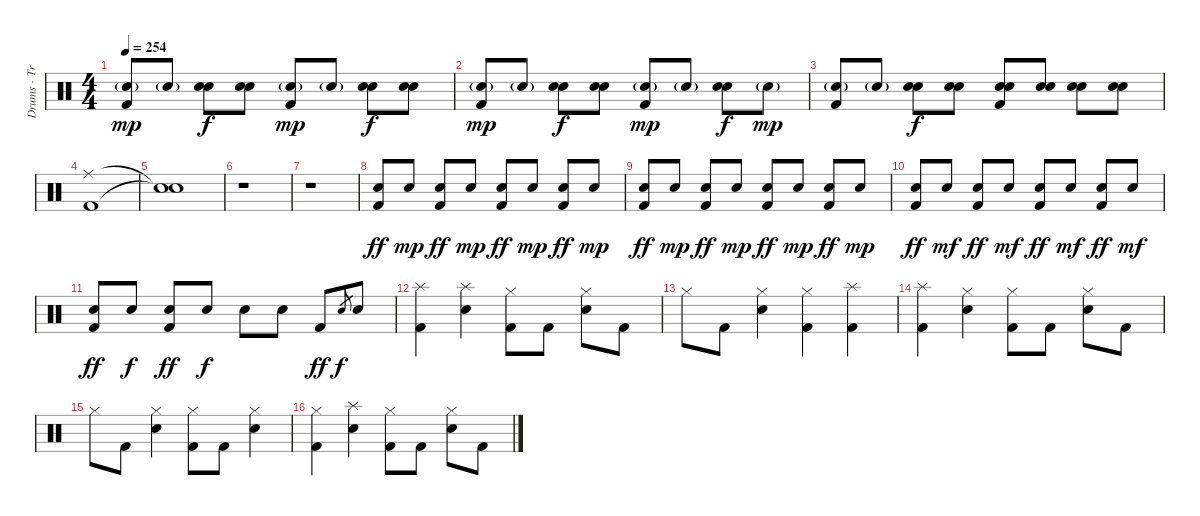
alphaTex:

\track ("Drums - Travis Barker" "Drums - Tr") {instrument percussion}
\staff {score}
\articulation defaults
\ts (4 4)
\tempo 254
\clef neutral
\ks c
("Electric Snare (hit)"{g} "Kick (hit) 2").8{dy mp} "Electric Snare (hit)"{g}.8 ("Electric Snare (hit)" "Electric Snare (hit)").8{dy f} ("Electric Snare (hit)" "Electric Snare (hit)").8 ("Electric Snare (hit)"{g} "Kick (hit) 2").8{dy mp} "Electric Snare (hit)"{g}.8 ("Electric Snare (hit)" "Electric Snare (hit)").8{dy f} ("Electric Snare (hit)" "Electric Snare (hit)").8 |
("Electric Snare (hit)"{g} "Kick (hit) 2").8{dy mp} "Electric Snare (hit)"{g}.8 ("Electric Snare (hit)" "Electric Snare (hit)").8{dy f} ("Electric Snare (hit)" "Electric Snare (hit)").8 ("Electric Snare (hit)"{g} "Kick (hit) 2").8{dy mp} "Electric Snare (hit)"{g}.8 ("Electric Snare (hit)" "Electric Snare (hit)").8{dy f} "Electric Snare (hit)"{g}.8{dy mp} |
("Electric Snare (hit)"{g} "Kick (hit) 2").8 "Electric Snare (hit)"{g}.8 ("Electric Snare (hit)" "Electric Snare (hit)").8{dy f} ("Electric Snare (hit)" "Electric Snare (hit)").8 ("Electric Snare (hit)" "Electric Snare (hit)" "Kick (hit) 2").8 ("Electric Snare (hit)" "Electric Snare (hit)").8 ("Electric Snare (hit)" "Electric Snare (hit)").8 ("Electric Snare (hit)" "Electric Snare (hit)").8 |
("Ride (middle)" "Kick (hit) 2").1 |
("Snare (hit)"{t} "Snare (hit)"{t}).1 |
r.1 |
r.1 |
("Electric Snare (hit)" "Kick (hit) 2").8{dy ff} "Electric Snare (hit)".8{dy mp} ("Electric Snare (hit)" "Kick (hit) 2").8{dy ff} "Electric Snare (hit)".8{dy mp} ("Electric Snare (hit)" "Kick (hit) 2").8{dy ff} "Electric Snare (hit)".8{dy mp} ("Electric Snare (hit)" "Kick (hit) 2").8{dy ff} "Electric Snare (hit)".8{dy mp} |
("Electric Snare (hit)" "Kick (hit) 2").8{dy ff} "Electric Snare (hit)".8{dy mp} ("Electric Snare (hit)" "Kick (hit) 2").8{dy ff} "Electric Snare (hit)".8{dy mp} ("Electric Snare (hit)" "Kick (hit) 2").8{dy ff} "Electric Snare (hit)".8{dy mp} ("Electric Snare (hit)" "Kick (hit) 2").8{dy ff} "Electric Snare (hit)".8{dy mp} |
("Electric Snare (hit)" "Kick (hit) 2").8{dy ff} "Electric Snare (hit)".8{dy mf} ("Electric Snare (hit)" "Kick (hit) 2").8{dy ff} "Electric Snare (hit)".8{dy mf} ("Electric Snare (hit)" "Kick (hit) 2").8{dy ff} "Electric Snare (hit)".8{dy mf} ("Electric Snare (hit)" "Kick (hit) 2").8{dy ff} "Electric Snare (hit)".8{dy mf} |
("Electric Snare (hit)" "Kick (hit) 2").8{dy ff} "Electric Snare (hit)".8{dy f} ("Electric Snare (hit)" "Kick (hit) 2").8{dy ff} "Electric Snare (hit)".8{dy f} "Electric Snare (hit)".8 "Electric Snare (hit)".8 "Kick (hit) 2".8{dy ff} "Electric Snare (hit)".8{gr dy f} "Electric Snare (hit)".8 |
("Splash (hit)" "Kick (hit) 2").4 ("Splash (hit)" "Electric Snare (hit)").4 ("Hi-Hat (closed)" "Kick (hit) 2").8 "Kick (hit) 2".8 ("Hi-Hat (closed)" "Electric Snare (hit)").8 "Kick (hit) 2".8 |
"Hi-Hat (closed)".8 "Kick (hit) 2".8 ("Hi-Hat (closed)" "Electric Snare (hit)").4 ("Hi-Hat (closed)" "Kick (hit) 2").4 ("Splash (hit)" "Kick (hit) 2").4 |
("Splash (hit)" "Kick (hit) 2").4 ("Hi-Hat (closed)" "Electric Snare (hit)").4 ("Hi-Hat (closed)" "Kick (hit) 2").8 "Kick (hit) 2".8 ("Hi-Hat (closed)" "Electric Snare (hit)").8 "Kick (hit) 2".8 |
"Hi-Hat (closed)".8 "Kick (hit) 2".8 ("Hi-Hat (closed)" "Electric Snare (hit)").4 ("Hi-Hat (closed)" "Kick (hit) 2").8 "Kick (hit) 2".8 ("Hi-Hat (closed)" "Electric Snare (hit)").4 |
("Hi-Hat (closed)" "Kick (hit) 2").4 ("Splash (hit)" "Electric Snare (hit)").4 ("Hi-Hat (closed)" "Kick (hit) 2").8 "Kick (hit) 2".8 ("Hi-Hat (closed)" "Electric Snare (hit)").8 "Kick (hit) 2".8
